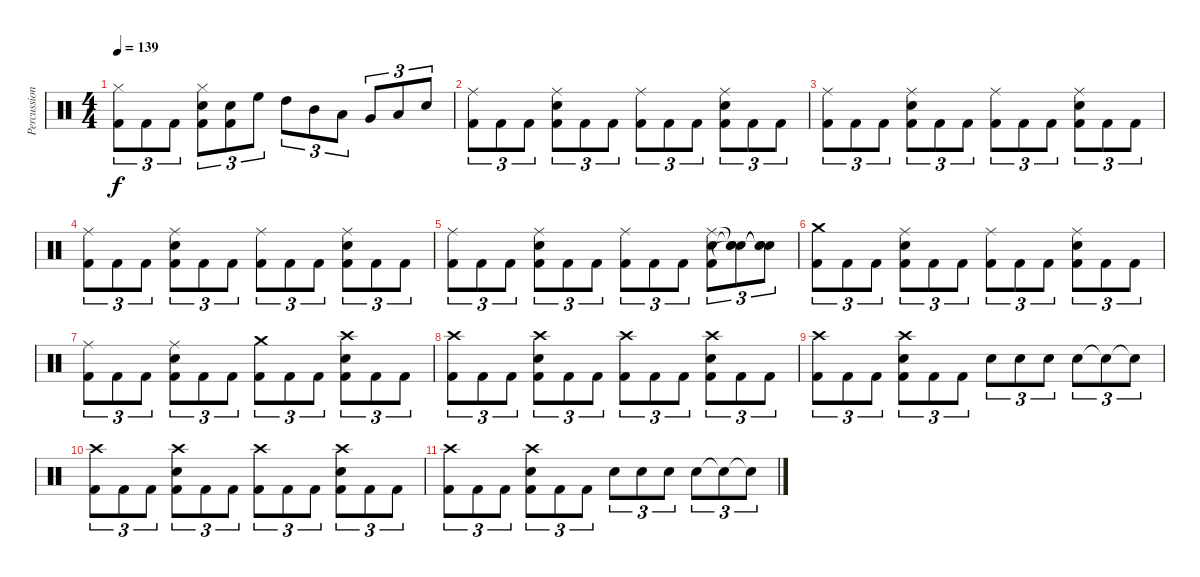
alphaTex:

\track ("Percussions" "Percussion") {instrument percussion}
\staff {score}
\articulation defaults
\ts (4 4)
\tempo 139
\clef neutral
\ks c
("Hi-Hat (closed)" "Kick (hit) 2").8{tu (3 2) dy f} "Kick (hit) 2".8{tu (3 2)} "Kick (hit) 2".8{tu (3 2)} ("Hi-Hat (closed)" "Snare (hit) 2" "Kick (hit) 2").8{tu (3 2)} ("Snare (hit) 2" "Kick (hit) 2").8{tu (3 2)} "High Floor Tom (hit)".8{tu (3 2)} "High Tom (hit)".8{tu (3 2)} "Mid Tom (hit)".8{tu (3 2)} "Low Tom (hit)".8{tu (3 2)} "Very Low Tom (hit)".8{tu (3 2)} "Low Floor Tom (hit)".8{tu (3 2)} "Snare (hit) 2".8{tu (3 2)} |
("Ride (middle)" "Kick (hit) 2").8{tu (3 2)} "Kick (hit) 2".8{tu (3 2)} "Kick (hit) 2".8{tu (3 2)} ("Ride (middle)" "Snare (hit) 2" "Kick (hit) 2").8{tu (3 2)} "Kick (hit) 2".8{tu (3 2)} "Kick (hit) 2".8{tu (3 2)} ("Ride (middle)" "Kick (hit) 2").8{tu (3 2)} "Kick (hit) 2".8{tu (3 2)} "Kick (hit) 2".8{tu (3 2)} ("Ride (middle)" "Snare (hit) 2" "Kick (hit) 2").8{tu (3 2)} "Kick (hit) 2".8{tu (3 2)} "Kick (hit) 2".8{tu (3 2)} |
("Ride (middle)" "Kick (hit) 2").8{tu (3 2)} "Kick (hit) 2".8{tu (3 2)} "Kick (hit) 2".8{tu (3 2)} ("Ride (middle)" "Snare (hit) 2" "Kick (hit) 2").8{tu (3 2)} "Kick (hit) 2".8{tu (3 2)} "Kick (hit) 2".8{tu (3 2)} ("Ride (middle)" "Kick (hit) 2").8{tu (3 2)} "Kick (hit) 2".8{tu (3 2)} "Kick (hit) 2".8{tu (3 2)} ("Ride (middle)" "Snare (hit) 2" "Kick (hit) 2").8{tu (3 2)} "Kick (hit) 2".8{tu (3 2)} "Kick (hit) 2".8{tu (3 2)} |
("Ride (middle)" "Kick (hit) 2").8{tu (3 2)} "Kick (hit) 2".8{tu (3 2)} "Kick (hit) 2".8{tu (3 2)} ("Ride (middle)" "Snare (hit) 2" "Kick (hit) 2").8{tu (3 2)} "Kick (hit) 2".8{tu (3 2)} "Kick (hit) 2".8{tu (3 2)} ("Ride (middle)" "Kick (hit) 2").8{tu (3 2)} "Kick (hit) 2".8{tu (3 2)} "Kick (hit) 2".8{tu (3 2)} ("Ride (middle)" "Snare (hit) 2" "Kick (hit) 2").8{tu (3 2)} "Kick (hit) 2".8{tu (3 2)} "Kick (hit) 2".8{tu (3 2)} |
("Ride (middle)" "Kick (hit) 2").8{tu (3 2)} "Kick (hit) 2".8{tu (3 2)} "Kick (hit) 2".8{tu (3 2)} ("Ride (middle)" "Snare (hit) 2" "Kick (hit) 2").8{tu (3 2)} "Kick (hit) 2".8{tu (3 2)} "Kick (hit) 2".8{tu (3 2)} ("Ride (middle)" "Kick (hit) 2").8{tu (3 2)} "Kick (hit) 2".8{tu (3 2)} "Kick (hit) 2".8{tu (3 2)} ("Ride (middle)" "Snare (hit) 2" "Kick (hit) 2").8{tu (3 2)} ("Snare (hit)"{t} "Snare (hit)"{t} "Snare (hit)"{t}).8{tu (3 2)} ("Snare (hit)"{t} "Snare (hit)"{t} "Snare (hit)"{t}).8{tu (3 2)} |
("Crash medium (hit)" "Kick (hit) 2").8{tu (3 2)} "Kick (hit) 2".8{tu (3 2)} "Kick (hit) 2".8{tu (3 2)} ("Ride (middle)" "Snare (hit) 2" "Kick (hit) 2").8{tu (3 2)} "Kick (hit) 2".8{tu (3 2)} "Kick (hit) 2".8{tu (3 2)} ("Ride (middle)" "Kick (hit) 2").8{tu (3 2)} "Kick (hit) 2".8{tu (3 2)} "Kick (hit) 2".8{tu (3 2)} ("Ride (middle)" "Snare (hit) 2" "Kick (hit) 2").8{tu (3 2)} "Kick (hit) 2".8{tu (3 2)} "Kick (hit) 2".8{tu (3 2)} |
("Ride (middle)" "Kick (hit) 2").8{tu (3 2)} "Kick (hit) 2".8{tu (3 2)} "Kick (hit) 2".8{tu (3 2)} ("Ride (middle)" "Snare (hit) 2" "Kick (hit) 2").8{tu (3 2)} "Kick (hit) 2".8{tu (3 2)} "Kick (hit) 2".8{tu (3 2)} ("Crash medium (hit)" "Kick (hit) 2").8{tu (3 2)} "Kick (hit) 2".8{tu (3 2)} "Kick (hit) 2".8{tu (3 2)} ("Crash high (hit)" "Snare (hit) 2" "Kick (hit) 2").8{tu (3 2)} "Kick (hit) 2".8{tu (3 2)} "Kick (hit) 2".8{tu (3 2)} |
("Crash high (hit)" "Kick (hit) 2").8{tu (3 2)} "Kick (hit) 2".8{tu (3 2)} "Kick (hit) 2".8{tu (3 2)} ("Crash high (hit)" "Snare (hit) 2" "Kick (hit) 2").8{tu (3 2)} "Kick (hit) 2".8{tu (3 2)} "Kick (hit) 2".8{tu (3 2)} ("Crash high (hit)" "Kick (hit) 2").8{tu (3 2)} "Kick (hit) 2".8{tu (3 2)} "Kick (hit) 2".8{tu (3 2)} ("Crash high (hit)" "Snare (hit) 2" "Kick (hit) 2").8{tu (3 2)} "Kick (hit) 2".8{tu (3 2)} "Kick (hit) 2".8{tu (3 2)} |
("Crash high (hit)" "Kick (hit) 2").8{tu (3 2)} "Kick (hit) 2".8{tu (3 2)} "Kick (hit) 2".8{tu (3 2)} ("Crash high (hit)" "Snare (hit) 2" "Kick (hit) 2").8{tu (3 2)} "Kick (hit) 2".8{tu (3 2)} "Kick (hit) 2".8{tu (3 2)} "Snare (hit) 2".8{tu (3 2)} "Snare (hit) 2".8{tu (3 2)} "Snare (hit) 2".8{tu (3 2)} "Snare (hit) 2".8{tu (3 2)} "Snare (hit)"{t}.8{tu (3 2)} "Snare (hit)"{t}.8{tu (3 2)} |
("Crash high (hit)" "Kick (hit) 2").8{tu (3 2)} "Kick (hit) 2".8{tu (3 2)} "Kick (hit) 2".8{tu (3 2)} ("Crash high (hit)" "Snare (hit) 2" "Kick (hit) 2").8{tu (3 2)} "Kick (hit) 2".8{tu (3 2)} "Kick (hit) 2".8{tu (3 2)} ("Crash high (hit)" "Kick (hit) 2").8{tu (3 2)} "Kick (hit) 2".8{tu (3 2)} "Kick (hit) 2".8{tu (3 2)} ("Crash high (hit)" "Snare (hit) 2" "Kick (hit) 2").8{tu (3 2)} "Kick (hit) 2".8{tu (3 2)} "Kick (hit) 2".8{tu (3 2)} |
("Crash high (hit)" "Kick (hit) 2").8{tu (3 2)} "Kick (hit) 2".8{tu (3 2)} "Kick (hit) 2".8{tu (3 2)} ("Crash high (hit)" "Snare (hit) 2" "Kick (hit) 2").8{tu (3 2)} "Kick (hit) 2".8{tu (3 2)} "Kick (hit) 2".8{tu (3 2)} "Snare (hit) 2".8{tu (3 2)} "Snare (hit) 2".8{tu (3 2)} "Snare (hit) 2".8{tu (3 2)} "Snare (hit) 2".8{tu (3 2)} "Snare (hit)"{t}.8{tu (3 2)} "Snare (hit)"{t}.8{tu (3 2)}
